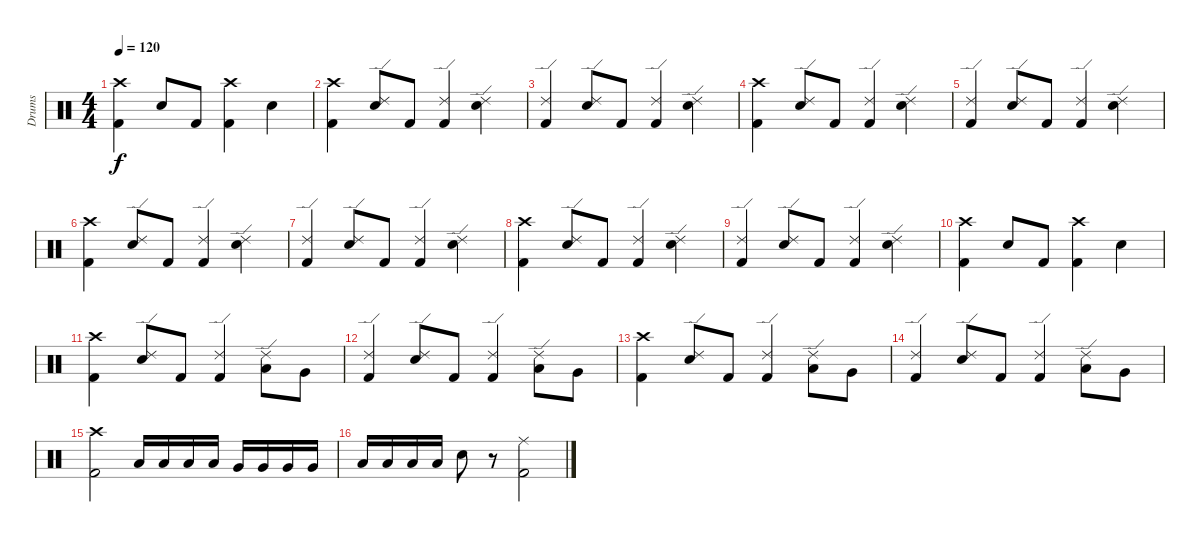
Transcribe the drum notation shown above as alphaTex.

\track ("Drums" "Drums") {instrument percussion}
\staff {score}
\articulation defaults
\ts (4 4)
\tempo 120
\clef neutral
\ks c
("Crash high (hit)" "Kick (hit) 2").4{dy f} "Electric Snare (hit)".8 "Kick (hit) 2".8 ("Crash high (hit)" "Kick (hit) 2").4 "Electric Snare (hit)".4 |
("Crash high (hit)" "Kick (hit) 2").4 ("Ride (edge) 2" "Electric Snare (hit)").8 "Kick (hit) 2".8 ("Ride (edge) 2" "Kick (hit) 2").4 ("Ride (edge) 2" "Electric Snare (hit)").4 |
("Ride (edge) 2" "Kick (hit) 2").4 ("Ride (edge) 2" "Electric Snare (hit)").8 "Kick (hit) 2".8 ("Ride (edge) 2" "Kick (hit) 2").4 ("Ride (edge) 2" "Electric Snare (hit)").4 |
("Crash high (hit)" "Kick (hit) 2").4 ("Ride (edge) 2" "Electric Snare (hit)").8 "Kick (hit) 2".8 ("Ride (edge) 2" "Kick (hit) 2").4 ("Ride (edge) 2" "Electric Snare (hit)").4 |
("Ride (edge) 2" "Kick (hit) 2").4 ("Ride (edge) 2" "Electric Snare (hit)").8 "Kick (hit) 2".8 ("Ride (edge) 2" "Kick (hit) 2").4 ("Ride (edge) 2" "Electric Snare (hit)").4 |
("Crash high (hit)" "Kick (hit) 2").4 ("Ride (edge) 2" "Electric Snare (hit)").8 "Kick (hit) 2".8 ("Ride (edge) 2" "Kick (hit) 2").4 ("Ride (edge) 2" "Electric Snare (hit)").4 |
("Ride (edge) 2" "Kick (hit) 2").4 ("Ride (edge) 2" "Electric Snare (hit)").8 "Kick (hit) 2".8 ("Ride (edge) 2" "Kick (hit) 2").4 ("Ride (edge) 2" "Electric Snare (hit)").4 |
("Crash high (hit)" "Kick (hit) 2").4 ("Ride (edge) 2" "Electric Snare (hit)").8 "Kick (hit) 2".8 ("Ride (edge) 2" "Kick (hit) 2").4 ("Ride (edge) 2" "Electric Snare (hit)").4 |
("Ride (edge) 2" "Kick (hit) 2").4 ("Ride (edge) 2" "Electric Snare (hit)").8 "Kick (hit) 2".8 ("Ride (edge) 2" "Kick (hit) 2").4 ("Ride (edge) 2" "Electric Snare (hit)").4 |
("Crash high (hit)" "Kick (hit) 2").4 "Electric Snare (hit)".8 "Kick (hit) 2".8 ("Crash high (hit)" "Kick (hit) 2").4 "Electric Snare (hit)".4 |
("Crash high (hit)" "Kick (hit) 2").4 ("Ride (edge) 2" "Electric Snare (hit)").8 "Kick (hit) 2".8 ("Ride (edge) 2" "Kick (hit) 2").4 ("Ride (edge) 2" "Low Tom (hit)").8 "Very Low Tom (hit)".8 |
("Ride (edge) 2" "Kick (hit) 2").4 ("Ride (edge) 2" "Electric Snare (hit)").8 "Kick (hit) 2".8 ("Ride (edge) 2" "Kick (hit) 2").4 ("Ride (edge) 2" "Low Tom (hit)").8 "Very Low Tom (hit)".8 |
("Crash high (hit)" "Kick (hit) 2").4 ("Ride (edge) 2" "Electric Snare (hit)").8 "Kick (hit) 2".8 ("Ride (edge) 2" "Kick (hit) 2").4 ("Ride (edge) 2" "Low Tom (hit)").8 "Very Low Tom (hit)".8 |
("Ride (edge) 2" "Kick (hit) 2").4 ("Ride (edge) 2" "Electric Snare (hit)").8 "Kick (hit) 2".8 ("Ride (edge) 2" "Kick (hit) 2").4 ("Ride (edge) 2" "Low Tom (hit)").8 "Very Low Tom (hit)".8 |
("Crash high (hit)" "Kick (hit) 2").2 "Low Tom (hit)".16 "Low Tom (hit)".16 "Low Tom (hit)".16 "Low Tom (hit)".16 "Very Low Tom (hit)".16 "Very Low Tom (hit)".16 "Very Low Tom (hit)".16 "Very Low Tom (hit)".16 |
"Low Floor Tom (hit)".16 "Low Floor Tom (hit)".16 "Low Floor Tom (hit)".16 "Low Floor Tom (hit)".16 "Electric Snare (hit)".8 r.8 ("Ride (middle)" "Kick (hit) 2").2
